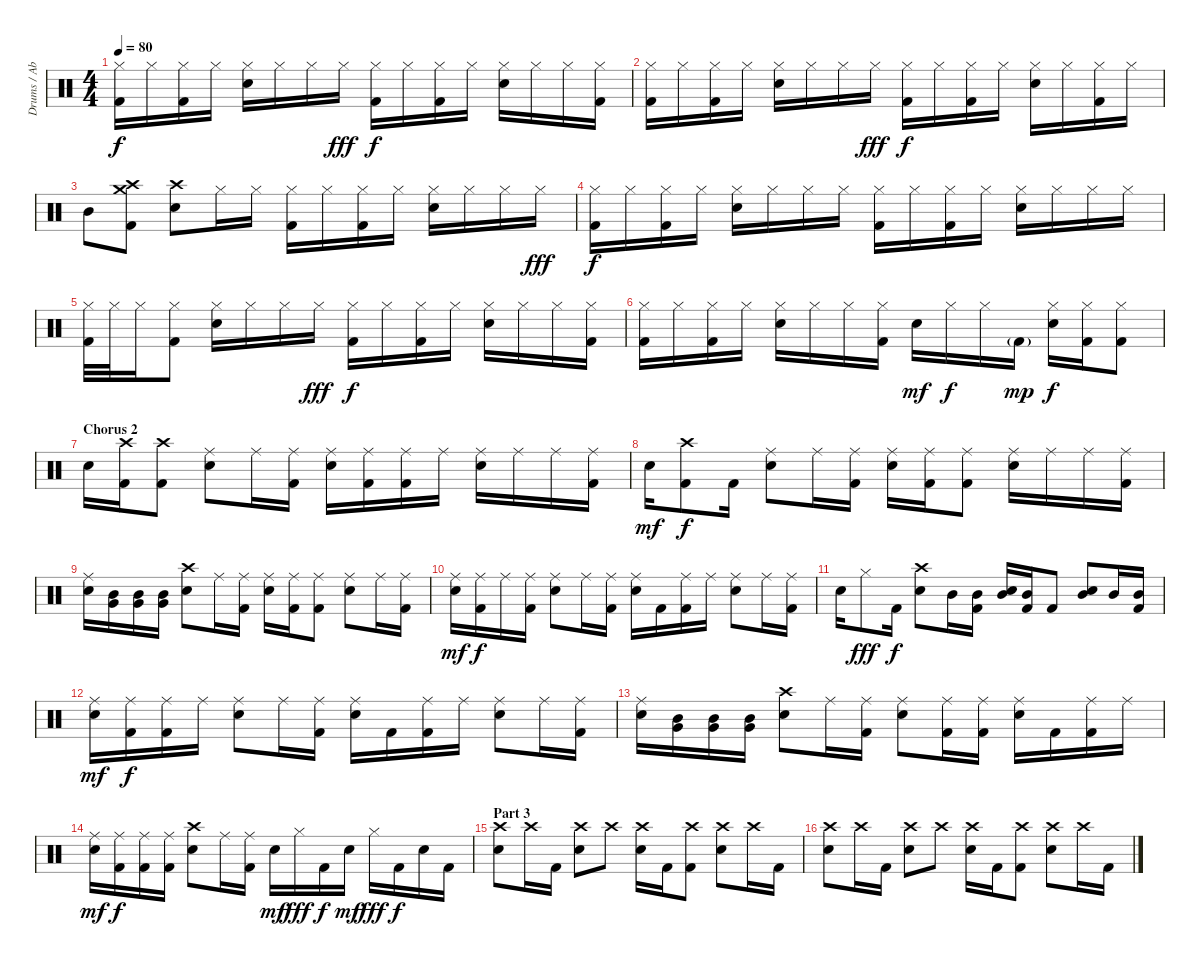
\track ("Drums / Abe Cunningham" "Drums / Ab") {instrument percussion}
\staff {score}
\articulation defaults
\ts (4 4)
\tempo 80
\clef neutral
\ks c
("Hi-Hat (closed)" "Kick (hit) 2").16{dy f} "Hi-Hat (closed)".16 ("Hi-Hat (closed)" "Kick (hit) 2").16 "Hi-Hat (closed)".16 ("Hi-Hat (closed)" "Electric Snare (hit)").16 "Hi-Hat (closed)".16 "Hi-Hat (closed)".16 "Hi-Hat (closed)".16{dy fff} ("Hi-Hat (closed)" "Kick (hit) 2").16{dy f} "Hi-Hat (closed)".16 ("Hi-Hat (closed)" "Kick (hit) 2").16 "Hi-Hat (closed)".16 ("Hi-Hat (closed)" "Electric Snare (hit)").16 "Hi-Hat (closed)".16 "Hi-Hat (closed)".16 ("Hi-Hat (closed)" "Kick (hit) 2").16 |
("Hi-Hat (closed)" "Kick (hit) 2").16 "Hi-Hat (closed)".16 ("Hi-Hat (closed)" "Kick (hit) 2").16 "Hi-Hat (closed)".16 ("Hi-Hat (closed)" "Electric Snare (hit)").16 "Hi-Hat (closed)".16 "Hi-Hat (closed)".16 "Hi-Hat (closed)".16{dy fff} ("Hi-Hat (closed)" "Kick (hit) 2").16{dy f} "Hi-Hat (closed)".16 ("Hi-Hat (closed)" "Kick (hit) 2").16 "Hi-Hat (closed)".16 ("Hi-Hat (closed)" "Electric Snare (hit)").16 "Hi-Hat (closed)".16 ("Hi-Hat (closed)" "Kick (hit) 2").16 "Hi-Hat (closed)".16 |
"Mid Tom (hit)".8 ("Crash medium (hit)" "Crash high (hit)" "Kick (hit) 2").8 ("Crash high (hit)" "Electric Snare (hit)").8 "Hi-Hat (closed)".16 "Hi-Hat (closed)".16 ("Hi-Hat (closed)" "Kick (hit) 2").16 "Hi-Hat (closed)".16 ("Hi-Hat (closed)" "Kick (hit) 2").16 "Hi-Hat (closed)".16 ("Hi-Hat (closed)" "Electric Snare (hit)").16 "Hi-Hat (closed)".16 "Hi-Hat (closed)".16 "Hi-Hat (closed)".16{dy fff} |
("Hi-Hat (closed)" "Kick (hit) 2").16{dy f} "Hi-Hat (closed)".16 ("Hi-Hat (closed)" "Kick (hit) 2").16 "Hi-Hat (closed)".16 ("Hi-Hat (closed)" "Electric Snare (hit)").16 "Hi-Hat (closed)".16 "Hi-Hat (closed)".16 "Hi-Hat (closed)".16 ("Hi-Hat (closed)" "Kick (hit) 2").16 "Hi-Hat (closed)".16 ("Hi-Hat (closed)" "Kick (hit) 2").16 "Hi-Hat (closed)".16 ("Hi-Hat (closed)" "Electric Snare (hit)").16 "Hi-Hat (closed)".16 "Hi-Hat (closed)".16 "Hi-Hat (closed)".16 |
("Hi-Hat (closed)" "Kick (hit) 2").32 "Hi-Hat (closed)".32 "Hi-Hat (closed)".16 ("Hi-Hat (closed)" "Kick (hit) 2").8 ("Hi-Hat (closed)" "Electric Snare (hit)").16 "Hi-Hat (closed)".16 "Hi-Hat (closed)".16 "Hi-Hat (closed)".16{dy fff} ("Hi-Hat (closed)" "Kick (hit) 2").16{dy f} "Hi-Hat (closed)".16 ("Hi-Hat (closed)" "Kick (hit) 2").16 "Hi-Hat (closed)".16 ("Hi-Hat (closed)" "Electric Snare (hit)").16 "Hi-Hat (closed)".16 "Hi-Hat (closed)".16 ("Hi-Hat (closed)" "Kick (hit) 2").16 |
("Hi-Hat (closed)" "Kick (hit) 2").16 "Hi-Hat (closed)".16 ("Hi-Hat (closed)" "Kick (hit) 2").16 "Hi-Hat (closed)".16 ("Hi-Hat (closed)" "Electric Snare (hit)").16 "Hi-Hat (closed)".16 "Hi-Hat (closed)".16 ("Hi-Hat (closed)" "Kick (hit) 2").16 "Electric Snare (hit)".16{dy mf} "Hi-Hat (closed)".16{dy f} "Hi-Hat (closed)".16 "Kick (hit) 2"{g}.16{dy mp} ("Hi-Hat (closed)" "Electric Snare (hit)").16{dy f} ("Hi-Hat (closed)" "Kick (hit) 2").16 ("Hi-Hat (closed)" "Kick (hit) 2").8 |
\section ("" "Chorus 2")
"Electric Snare (hit)".16 ("Crash high (hit)" "Kick (hit) 2").16 ("Crash high (hit)" "Kick (hit) 2").8 ("Ride (middle)" "Electric Snare (hit)").8 "Ride (middle)".16 ("Ride (middle)" "Kick (hit) 2").16 ("Ride (middle)" "Electric Snare (hit)").16 ("Ride (middle)" "Kick (hit) 2").16 ("Ride (middle)" "Kick (hit) 2").16 "Ride (middle)".16 ("Ride (middle)" "Electric Snare (hit)").16 "Ride (middle)".16 "Ride (middle)".16 ("Ride (middle)" "Kick (hit) 2").16 |
"Electric Snare (hit)".16{dy mf} ("Crash high (hit)" "Kick (hit) 2").8{dy f} "Kick (hit) 2".16 ("Ride (middle)" "Electric Snare (hit)").8 "Ride (middle)".16 ("Ride (middle)" "Kick (hit) 2").16 ("Ride (middle)" "Electric Snare (hit)").16 ("Ride (middle)" "Kick (hit) 2").16 ("Ride (middle)" "Kick (hit) 2").8 ("Ride (middle)" "Electric Snare (hit)").16 "Ride (middle)".16 "Ride (middle)".16 ("Ride (middle)" "Kick (hit) 2").16 |
("Ride (middle)" "Electric Snare (hit)").16 ("Mid Tom (hit)" "Very Low Tom (hit)").16 ("Mid Tom (hit)" "Very Low Tom (hit)").16 ("Mid Tom (hit)" "Very Low Tom (hit)").16 ("Crash high (hit)" "Electric Snare (hit)").8 "Ride (middle)".16 ("Ride (middle)" "Kick (hit) 2").16 ("Ride (middle)" "Electric Snare (hit)").16 ("Ride (middle)" "Kick (hit) 2").16 ("Ride (middle)" "Kick (hit) 2").8 ("Ride (middle)" "Electric Snare (hit)").8 "Ride (middle)".16 ("Ride (middle)" "Kick (hit) 2").16 |
("Ride (middle)" "Electric Snare (hit)").16{dy mf} ("Ride (middle)" "Kick (hit) 2").16{dy f} "Ride (middle)".16 ("Ride (middle)" "Kick (hit) 2").16 ("Ride (middle)" "Electric Snare (hit)").8 "Ride (middle)".16 ("Ride (middle)" "Kick (hit) 2").16 ("Ride (middle)" "Electric Snare (hit)").16 "Kick (hit) 2".16 ("Ride (middle)" "Kick (hit) 2").16 "Ride (middle)".16 ("Ride (middle)" "Electric Snare (hit)").8 "Ride (middle)".16 ("Ride (middle)" "Kick (hit) 2").16 |
"Electric Snare (hit)".16 "Hi-Hat (closed)".8{dy fff} "Kick (hit) 2".16{dy f} ("Crash high (hit)" "Electric Snare (hit)").8 "Mid Tom (hit)".16 ("Mid Tom (hit)" "Kick (hit) 2").16 ("Electric Snare (hit)" "Mid Tom (hit)").16 ("Mid Tom (hit)" "Kick (hit) 2").16 "Kick (hit) 2".8 ("Electric Snare (hit)" "Mid Tom (hit)").8 "Mid Tom (hit)".16 ("Mid Tom (hit)" "Kick (hit) 2").16 |
("Ride (middle)" "Electric Snare (hit)").16{dy mf} ("Ride (middle)" "Kick (hit) 2").16{dy f} ("Ride (middle)" "Kick (hit) 2").16 "Ride (middle)".16 ("Ride (middle)" "Electric Snare (hit)").8 "Ride (middle)".16 ("Ride (middle)" "Kick (hit) 2").16 ("Ride (middle)" "Electric Snare (hit)").16 "Kick (hit) 2".16 ("Ride (middle)" "Kick (hit) 2").16 "Ride (middle)".16 ("Ride (middle)" "Electric Snare (hit)").8 "Ride (middle)".16 ("Ride (middle)" "Kick (hit) 2").16 |
("Ride (middle)" "Electric Snare (hit)").16 ("Mid Tom (hit)" "Very Low Tom (hit)").16 ("Mid Tom (hit)" "Very Low Tom (hit)").16 ("Mid Tom (hit)" "Very Low Tom (hit)").16 ("Crash high (hit)" "Electric Snare (hit)").8 "Ride (middle)".16 ("Ride (middle)" "Kick (hit) 2").16 ("Ride (middle)" "Electric Snare (hit)").8 ("Ride (middle)" "Kick (hit) 2").16 ("Ride (middle)" "Kick (hit) 2").16 ("Ride (middle)" "Electric Snare (hit)").16 "Kick (hit) 2".16 ("Ride (middle)" "Kick (hit) 2").16 "Ride (middle)".16 |
("Ride (middle)" "Electric Snare (hit)").16{dy mf} ("Ride (middle)" "Kick (hit) 2").16{dy f} ("Ride (middle)" "Kick (hit) 2").16 ("Ride (middle)" "Kick (hit) 2").16 ("Crash high (hit)" "Electric Snare (hit)").8 "Ride (middle)".16 ("Ride (middle)" "Kick (hit) 2").16 "Electric Snare (hit)".16{dy mf} "Hi-Hat (closed)".16{dy fff} "Kick (hit) 2".16{dy f} "Electric Snare (hit)".16{dy mf} "Hi-Hat (closed)".16{dy fff} "Kick (hit) 2".16{dy f} "Electric Snare (hit)".16 "Kick (hit) 2".16 |
\section ("" "Part 3")
("Crash high (hit)" "Electric Snare (hit)").8 "Crash high (hit)".16 "Kick (hit) 2".16 ("Crash high (hit)" "Electric Snare (hit)").8 "Crash high (hit)".8 ("Crash high (hit)" "Electric Snare (hit)").16 "Kick (hit) 2".16 ("Crash high (hit)" "Kick (hit) 2").8 ("Crash high (hit)" "Electric Snare (hit)").8 "Crash high (hit)".16 "Kick (hit) 2".16 |
("Crash high (hit)" "Electric Snare (hit)").8 "Crash high (hit)".16 "Kick (hit) 2".16 ("Crash high (hit)" "Electric Snare (hit)").8 "Crash high (hit)".8 ("Crash high (hit)" "Electric Snare (hit)").16 "Kick (hit) 2".16 ("Crash high (hit)" "Kick (hit) 2").8 ("Crash high (hit)" "Electric Snare (hit)").8 "Crash high (hit)".16 "Kick (hit) 2".16
